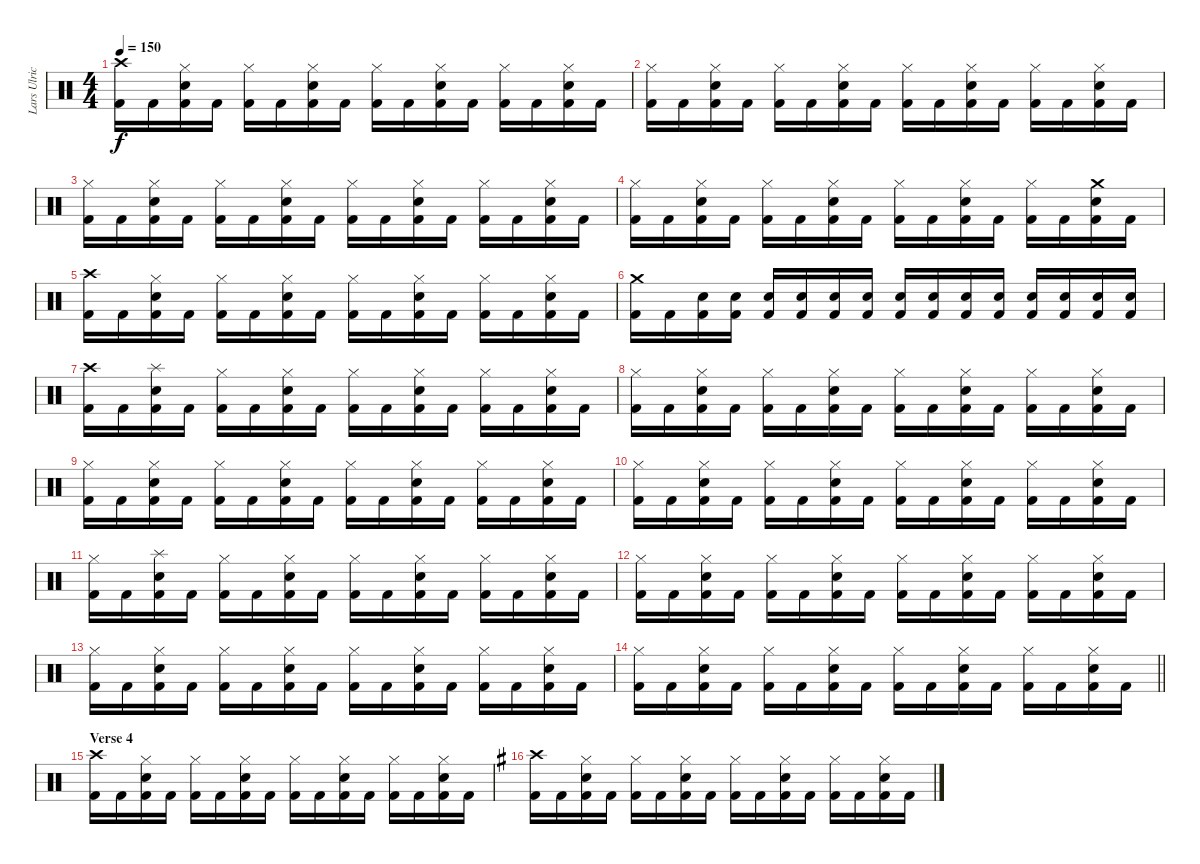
\track ("Lars Ulrich" "Lars Ulric") {instrument percussion}
\staff {score}
\articulation defaults
\ts (4 4)
\tempo 150
\clef neutral
\ks c
("Crash high (hit)" "Kick (hit) 2").16{dy f} "Kick (hit) 2".16 ("Hi-Hat (closed)" "Snare (hit) 2" "Kick (hit) 2").16 "Kick (hit) 2".16 ("Hi-Hat (closed)" "Kick (hit) 2").16 "Kick (hit) 2".16 ("Hi-Hat (closed)" "Snare (hit) 2" "Kick (hit) 2").16 "Kick (hit) 2".16 ("Hi-Hat (closed)" "Kick (hit) 2").16 "Kick (hit) 2".16 ("Hi-Hat (closed)" "Snare (hit) 2" "Kick (hit) 2").16 "Kick (hit) 2".16 ("Hi-Hat (closed)" "Kick (hit) 2").16 "Kick (hit) 2".16 ("Hi-Hat (closed)" "Snare (hit) 2" "Kick (hit) 2").16 "Kick (hit) 2".16 |
("Hi-Hat (closed)" "Kick (hit) 2").16 "Kick (hit) 2".16 ("Hi-Hat (closed)" "Snare (hit) 2" "Kick (hit) 2").16 "Kick (hit) 2".16 ("Hi-Hat (closed)" "Kick (hit) 2").16 "Kick (hit) 2".16 ("Hi-Hat (closed)" "Snare (hit) 2" "Kick (hit) 2").16 "Kick (hit) 2".16 ("Hi-Hat (closed)" "Kick (hit) 2").16 "Kick (hit) 2".16 ("Hi-Hat (closed)" "Snare (hit) 2" "Kick (hit) 2").16 "Kick (hit) 2".16 ("Hi-Hat (closed)" "Kick (hit) 2").16 "Kick (hit) 2".16 ("Hi-Hat (closed)" "Snare (hit) 2" "Kick (hit) 2").16 "Kick (hit) 2".16 |
("Hi-Hat (closed)" "Kick (hit) 2").16 "Kick (hit) 2".16 ("Hi-Hat (closed)" "Snare (hit) 2" "Kick (hit) 2").16 "Kick (hit) 2".16 ("Hi-Hat (closed)" "Kick (hit) 2").16 "Kick (hit) 2".16 ("Hi-Hat (closed)" "Snare (hit) 2" "Kick (hit) 2").16 "Kick (hit) 2".16 ("Hi-Hat (closed)" "Kick (hit) 2").16 "Kick (hit) 2".16 ("Hi-Hat (closed)" "Snare (hit) 2" "Kick (hit) 2").16 "Kick (hit) 2".16 ("Hi-Hat (closed)" "Kick (hit) 2").16 "Kick (hit) 2".16 ("Hi-Hat (closed)" "Snare (hit) 2" "Kick (hit) 2").16 "Kick (hit) 2".16 |
("Hi-Hat (closed)" "Kick (hit) 2").16 "Kick (hit) 2".16 ("Hi-Hat (closed)" "Snare (hit) 2" "Kick (hit) 2").16 "Kick (hit) 2".16 ("Hi-Hat (closed)" "Kick (hit) 2").16 "Kick (hit) 2".16 ("Hi-Hat (closed)" "Snare (hit) 2" "Kick (hit) 2").16 "Kick (hit) 2".16 ("Hi-Hat (closed)" "Kick (hit) 2").16 "Kick (hit) 2".16 ("Hi-Hat (closed)" "Snare (hit) 2" "Kick (hit) 2").16 "Kick (hit) 2".16 ("Hi-Hat (closed)" "Kick (hit) 2").16 "Kick (hit) 2".16 ("Crash medium (hit)" "Snare (hit) 2" "Kick (hit) 2").16 "Kick (hit) 2".16 |
("Crash high (hit)" "Kick (hit) 2").16 "Kick (hit) 2".16 ("Hi-Hat (closed)" "Snare (hit) 2" "Kick (hit) 2").16 "Kick (hit) 2".16 ("Hi-Hat (closed)" "Kick (hit) 2").16 "Kick (hit) 2".16 ("Hi-Hat (closed)" "Snare (hit) 2" "Kick (hit) 2").16 "Kick (hit) 2".16 ("Hi-Hat (closed)" "Kick (hit) 2").16 "Kick (hit) 2".16 ("Hi-Hat (closed)" "Snare (hit) 2" "Kick (hit) 2").16 "Kick (hit) 2".16 ("Hi-Hat (closed)" "Kick (hit) 2").16 "Kick (hit) 2".16 ("Hi-Hat (closed)" "Snare (hit) 2" "Kick (hit) 2").16 "Kick (hit) 2".16 |
("Crash medium (hit)" "Kick (hit) 2").16{volume 16} "Kick (hit) 2".16 ("Snare (hit) 2" "Kick (hit) 2").16 ("Snare (hit) 2" "Kick (hit) 2").16 ("Snare (hit) 2" "Kick (hit) 2").16 ("Snare (hit) 2" "Kick (hit) 2").16 ("Snare (hit) 2" "Kick (hit) 2").16 ("Snare (hit) 2" "Kick (hit) 2").16 ("Snare (hit) 2" "Kick (hit) 2").16 ("Snare (hit) 2" "Kick (hit) 2").16 ("Snare (hit) 2" "Kick (hit) 2").16 ("Snare (hit) 2" "Kick (hit) 2").16 ("Snare (hit) 2" "Kick (hit) 2").16 ("Snare (hit) 2" "Kick (hit) 2").16 ("Snare (hit) 2" "Kick (hit) 2").16 ("Snare (hit) 2" "Kick (hit) 2").16 |
("Crash high (hit)" "Kick (hit) 2").16 "Kick (hit) 2".16 ("Splash (hit)" "Snare (hit) 2" "Kick (hit) 2").16 "Kick (hit) 2".16 ("Hi-Hat (closed)" "Kick (hit) 2").16 "Kick (hit) 2".16 ("Hi-Hat (closed)" "Snare (hit) 2" "Kick (hit) 2").16 "Kick (hit) 2".16 ("Hi-Hat (closed)" "Kick (hit) 2").16 "Kick (hit) 2".16 ("Hi-Hat (closed)" "Snare (hit) 2" "Kick (hit) 2").16 "Kick (hit) 2".16 ("Hi-Hat (closed)" "Kick (hit) 2").16 "Kick (hit) 2".16 ("Hi-Hat (closed)" "Snare (hit) 2" "Kick (hit) 2").16 "Kick (hit) 2".16 |
("Hi-Hat (closed)" "Kick (hit) 2").16 "Kick (hit) 2".16 ("Hi-Hat (closed)" "Snare (hit) 2" "Kick (hit) 2").16 "Kick (hit) 2".16 ("Hi-Hat (closed)" "Kick (hit) 2").16 "Kick (hit) 2".16 ("Hi-Hat (closed)" "Snare (hit) 2" "Kick (hit) 2").16 "Kick (hit) 2".16 ("Hi-Hat (closed)" "Kick (hit) 2").16 "Kick (hit) 2".16 ("Hi-Hat (closed)" "Snare (hit) 2" "Kick (hit) 2").16 "Kick (hit) 2".16 ("Hi-Hat (closed)" "Kick (hit) 2").16 "Kick (hit) 2".16 ("Hi-Hat (closed)" "Snare (hit) 2" "Kick (hit) 2").16 "Kick (hit) 2".16 |
("Hi-Hat (closed)" "Kick (hit) 2").16 "Kick (hit) 2".16 ("Hi-Hat (closed)" "Snare (hit) 2" "Kick (hit) 2").16 "Kick (hit) 2".16 ("Hi-Hat (closed)" "Kick (hit) 2").16 "Kick (hit) 2".16 ("Hi-Hat (closed)" "Snare (hit) 2" "Kick (hit) 2").16 "Kick (hit) 2".16 ("Hi-Hat (closed)" "Kick (hit) 2").16 "Kick (hit) 2".16 ("Hi-Hat (closed)" "Snare (hit) 2" "Kick (hit) 2").16 "Kick (hit) 2".16 ("Hi-Hat (closed)" "Kick (hit) 2").16 "Kick (hit) 2".16 ("Hi-Hat (closed)" "Snare (hit) 2" "Kick (hit) 2").16 "Kick (hit) 2".16 |
("Hi-Hat (closed)" "Kick (hit) 2").16 "Kick (hit) 2".16 ("Hi-Hat (closed)" "Snare (hit) 2" "Kick (hit) 2").16 "Kick (hit) 2".16 ("Hi-Hat (closed)" "Kick (hit) 2").16 "Kick (hit) 2".16 ("Hi-Hat (closed)" "Snare (hit) 2" "Kick (hit) 2").16 "Kick (hit) 2".16 ("Hi-Hat (closed)" "Kick (hit) 2").16 "Kick (hit) 2".16 ("Hi-Hat (closed)" "Snare (hit) 2" "Kick (hit) 2").16 "Kick (hit) 2".16 ("Hi-Hat (closed)" "Kick (hit) 2").16 "Kick (hit) 2".16 ("Hi-Hat (closed)" "Snare (hit) 2" "Kick (hit) 2").16 "Kick (hit) 2".16 |
("Hi-Hat (closed)" "Kick (hit) 2").16 "Kick (hit) 2".16 ("Splash (hit)" "Snare (hit) 2" "Kick (hit) 2").16 "Kick (hit) 2".16 ("Hi-Hat (closed)" "Kick (hit) 2").16 "Kick (hit) 2".16 ("Hi-Hat (closed)" "Snare (hit) 2" "Kick (hit) 2").16 "Kick (hit) 2".16 ("Hi-Hat (closed)" "Kick (hit) 2").16 "Kick (hit) 2".16 ("Hi-Hat (closed)" "Snare (hit) 2" "Kick (hit) 2").16 "Kick (hit) 2".16 ("Hi-Hat (closed)" "Kick (hit) 2").16 "Kick (hit) 2".16 ("Hi-Hat (closed)" "Snare (hit) 2" "Kick (hit) 2").16 "Kick (hit) 2".16 |
("Hi-Hat (closed)" "Kick (hit) 2").16 "Kick (hit) 2".16 ("Hi-Hat (closed)" "Snare (hit) 2" "Kick (hit) 2").16 "Kick (hit) 2".16 ("Hi-Hat (closed)" "Kick (hit) 2").16 "Kick (hit) 2".16 ("Hi-Hat (closed)" "Snare (hit) 2" "Kick (hit) 2").16 "Kick (hit) 2".16 ("Hi-Hat (closed)" "Kick (hit) 2").16 "Kick (hit) 2".16 ("Hi-Hat (closed)" "Snare (hit) 2" "Kick (hit) 2").16 "Kick (hit) 2".16 ("Hi-Hat (closed)" "Kick (hit) 2").16 "Kick (hit) 2".16 ("Hi-Hat (closed)" "Snare (hit) 2" "Kick (hit) 2").16 "Kick (hit) 2".16 |
("Hi-Hat (closed)" "Kick (hit) 2").16 "Kick (hit) 2".16 ("Hi-Hat (closed)" "Snare (hit) 2" "Kick (hit) 2").16 "Kick (hit) 2".16 ("Hi-Hat (closed)" "Kick (hit) 2").16 "Kick (hit) 2".16 ("Hi-Hat (closed)" "Snare (hit) 2" "Kick (hit) 2").16 "Kick (hit) 2".16 ("Hi-Hat (closed)" "Kick (hit) 2").16 "Kick (hit) 2".16 ("Hi-Hat (closed)" "Snare (hit) 2" "Kick (hit) 2").16 "Kick (hit) 2".16 ("Hi-Hat (closed)" "Kick (hit) 2").16 "Kick (hit) 2".16 ("Hi-Hat (closed)" "Snare (hit) 2" "Kick (hit) 2").16 "Kick (hit) 2".16 |
\barLineRight lightlight
("Hi-Hat (closed)" "Kick (hit) 2").16 "Kick (hit) 2".16 ("Hi-Hat (closed)" "Snare (hit) 2" "Kick (hit) 2").16 "Kick (hit) 2".16 ("Hi-Hat (closed)" "Kick (hit) 2").16 "Kick (hit) 2".16 ("Hi-Hat (closed)" "Snare (hit) 2" "Kick (hit) 2").16 "Kick (hit) 2".16 ("Hi-Hat (closed)" "Kick (hit) 2").16 "Kick (hit) 2".16 ("Hi-Hat (closed)" "Snare (hit) 2" "Kick (hit) 2").16 "Kick (hit) 2".16 ("Hi-Hat (closed)" "Kick (hit) 2").16 "Kick (hit) 2".16 ("Hi-Hat (closed)" "Snare (hit) 2" "Kick (hit) 2").16 "Kick (hit) 2".16 |
\section ("" "Verse 4")
("Crash high (hit)" "Kick (hit) 2").16 "Kick (hit) 2".16 ("Hi-Hat (closed)" "Snare (hit) 2" "Kick (hit) 2").16 "Kick (hit) 2".16 ("Hi-Hat (closed)" "Kick (hit) 2").16 "Kick (hit) 2".16 ("Hi-Hat (closed)" "Snare (hit) 2" "Kick (hit) 2").16 "Kick (hit) 2".16 ("Hi-Hat (closed)" "Kick (hit) 2").16 "Kick (hit) 2".16 ("Hi-Hat (closed)" "Snare (hit) 2" "Kick (hit) 2").16 "Kick (hit) 2".16 ("Hi-Hat (closed)" "Kick (hit) 2").16 "Kick (hit) 2".16 ("Hi-Hat (closed)" "Snare (hit) 2" "Kick (hit) 2").16 "Kick (hit) 2".16 |
\ks g
("Crash high (hit)" "Kick (hit) 2").16 "Kick (hit) 2".16 ("Hi-Hat (closed)" "Snare (hit) 2" "Kick (hit) 2").16 "Kick (hit) 2".16 ("Hi-Hat (closed)" "Kick (hit) 2").16 "Kick (hit) 2".16 ("Hi-Hat (closed)" "Snare (hit) 2" "Kick (hit) 2").16 "Kick (hit) 2".16 ("Hi-Hat (closed)" "Kick (hit) 2").16 "Kick (hit) 2".16 ("Hi-Hat (closed)" "Snare (hit) 2" "Kick (hit) 2").16 "Kick (hit) 2".16 ("Hi-Hat (closed)" "Kick (hit) 2").16 "Kick (hit) 2".16 ("Hi-Hat (closed)" "Snare (hit) 2" "Kick (hit) 2").16 "Kick (hit) 2".16
